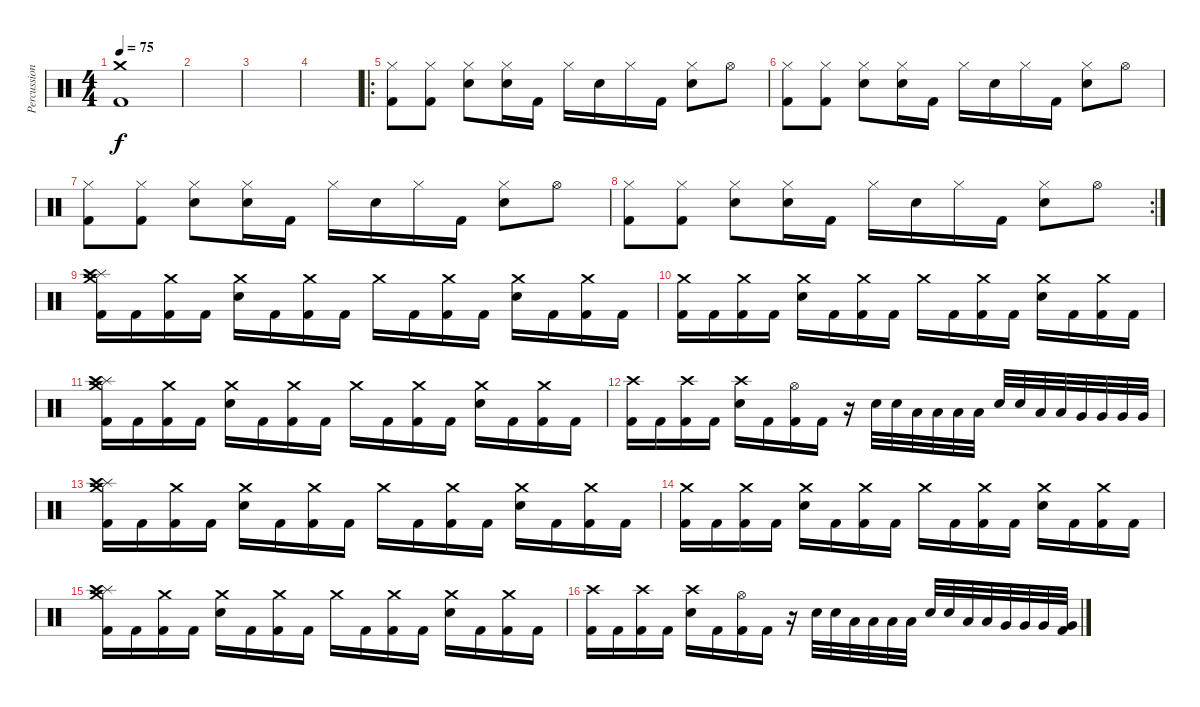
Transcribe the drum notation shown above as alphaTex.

\track ("Percussion" "Percussion") {instrument percussion}
\staff {score}
\articulation defaults
\ts (4 4)
\tempo 75
\clef neutral
\ks c
("Crash medium (hit)" "Kick (hit) 2").1{dy f} |
|
|
|
\ro
("Hi-Hat (closed)" "Kick (hit) 2").8{balance 0} ("Hi-Hat (closed)" "Kick (hit) 2").8 ("Hi-Hat (closed)" "Electric Snare (hit)").8 ("Hi-Hat (closed)" "Electric Snare (hit)").16 "Kick (hit) 2".16 "Hi-Hat (closed)".16 "Electric Snare (hit)".16 "Hi-Hat (closed)".16 "Kick (hit) 2".16 ("Hi-Hat (closed)" "Electric Snare (hit)").8 "Hi-Hat (open)".8 |
("Hi-Hat (closed)" "Kick (hit) 2").8 ("Hi-Hat (closed)" "Kick (hit) 2").8 ("Hi-Hat (closed)" "Electric Snare (hit)").8 ("Hi-Hat (closed)" "Electric Snare (hit)").16 "Kick (hit) 2".16 "Hi-Hat (closed)".16 "Electric Snare (hit)".16 "Hi-Hat (closed)".16 "Kick (hit) 2".16 ("Hi-Hat (closed)" "Electric Snare (hit)").8 "Hi-Hat (open)".8 |
("Hi-Hat (closed)" "Kick (hit) 2").8 ("Hi-Hat (closed)" "Kick (hit) 2").8 ("Hi-Hat (closed)" "Electric Snare (hit)").8 ("Hi-Hat (closed)" "Electric Snare (hit)").16 "Kick (hit) 2".16 "Hi-Hat (closed)".16 "Electric Snare (hit)".16 "Hi-Hat (closed)".16 "Kick (hit) 2".16 ("Hi-Hat (closed)" "Electric Snare (hit)").8 "Hi-Hat (open)".8 |
\rc 2
("Hi-Hat (closed)" "Kick (hit) 2").8 ("Hi-Hat (closed)" "Kick (hit) 2").8 ("Hi-Hat (closed)" "Electric Snare (hit)").8 ("Hi-Hat (closed)" "Electric Snare (hit)").16 "Kick (hit) 2".16 "Hi-Hat (closed)".16 "Electric Snare (hit)".16 "Hi-Hat (closed)".16 "Kick (hit) 2".16 ("Hi-Hat (closed)" "Electric Snare (hit)").8 "Hi-Hat (open)".8 |
("Splash (hit)" "Crash high (hit)" "Crash medium (hit)" "Kick (hit) 2").16 "Kick (hit) 2".16 ("Crash medium (hit)" "Kick (hit) 2").16 "Kick (hit) 2".16 ("Crash medium (hit)" "Snare (hit) 2").16 "Kick (hit) 2".16 ("Crash medium (hit)" "Kick (hit) 2").16 "Kick (hit) 2".16 "Crash medium (hit)".16 "Kick (hit) 2".16 ("Crash medium (hit)" "Kick (hit) 2").16 "Kick (hit) 2".16 ("Crash medium (hit)" "Snare (hit) 2").16 "Kick (hit) 2".16 ("Crash medium (hit)" "Kick (hit) 2").16 "Kick (hit) 2".16 |
("Crash medium (hit)" "Kick (hit) 2").16 "Kick (hit) 2".16 ("Crash medium (hit)" "Kick (hit) 2").16 "Kick (hit) 2".16 ("Crash medium (hit)" "Snare (hit) 2").16 "Kick (hit) 2".16 ("Crash medium (hit)" "Kick (hit) 2").16 "Kick (hit) 2".16 "Crash medium (hit)".16 "Kick (hit) 2".16 ("Crash medium (hit)" "Kick (hit) 2").16 "Kick (hit) 2".16 ("Crash medium (hit)" "Snare (hit) 2").16 "Kick (hit) 2".16 ("Crash medium (hit)" "Kick (hit) 2").16 "Kick (hit) 2".16 |
("Splash (hit)" "Crash high (hit)" "Crash medium (hit)" "Kick (hit) 2").16 "Kick (hit) 2".16 ("Crash medium (hit)" "Kick (hit) 2").16 "Kick (hit) 2".16 ("Crash medium (hit)" "Snare (hit) 2").16 "Kick (hit) 2".16 ("Crash medium (hit)" "Kick (hit) 2").16 "Kick (hit) 2".16 "Crash medium (hit)".16 "Kick (hit) 2".16 ("Crash medium (hit)" "Kick (hit) 2").16 "Kick (hit) 2".16 ("Crash medium (hit)" "Snare (hit) 2").16 "Kick (hit) 2".16 ("Crash medium (hit)" "Kick (hit) 2").16 "Kick (hit) 2".16 |
("Crash high (hit)" "Kick (hit) 2").16 "Kick (hit) 2".16 ("Crash high (hit)" "Kick (hit) 2").16 "Kick (hit) 2".16 ("Crash high (hit)" "Snare (hit) 2").16 "Kick (hit) 2".16 ("Hi-Hat (open)" "Kick (hit) 2").16 "Kick (hit) 2".16 r.16 "Snare (hit) 2".32 "Snare (hit) 2".32 "Low Tom (hit)".32 "Low Tom (hit)".32 "Low Tom (hit)".32 "Low Tom (hit)".32 "Snare (hit) 2".32 "Snare (hit) 2".32 "Low Tom (hit)".32 "Low Tom (hit)".32 "Very Low Tom (hit)".32 "Very Low Tom (hit)".32 "Very Low Tom (hit)".32 "Very Low Tom (hit)".32 |
("Splash (hit)" "Crash high (hit)" "Crash medium (hit)" "Kick (hit) 2").16 "Kick (hit) 2".16 ("Crash medium (hit)" "Kick (hit) 2").16 "Kick (hit) 2".16 ("Crash medium (hit)" "Snare (hit) 2").16 "Kick (hit) 2".16 ("Crash medium (hit)" "Kick (hit) 2").16 "Kick (hit) 2".16 "Crash medium (hit)".16 "Kick (hit) 2".16 ("Crash medium (hit)" "Kick (hit) 2").16 "Kick (hit) 2".16 ("Crash medium (hit)" "Snare (hit) 2").16 "Kick (hit) 2".16 ("Crash medium (hit)" "Kick (hit) 2").16 "Kick (hit) 2".16 |
("Crash medium (hit)" "Kick (hit) 2").16 "Kick (hit) 2".16 ("Crash medium (hit)" "Kick (hit) 2").16 "Kick (hit) 2".16 ("Crash medium (hit)" "Snare (hit) 2").16 "Kick (hit) 2".16 ("Crash medium (hit)" "Kick (hit) 2").16 "Kick (hit) 2".16 "Crash medium (hit)".16 "Kick (hit) 2".16 ("Crash medium (hit)" "Kick (hit) 2").16 "Kick (hit) 2".16 ("Crash medium (hit)" "Snare (hit) 2").16 "Kick (hit) 2".16 ("Crash medium (hit)" "Kick (hit) 2").16 "Kick (hit) 2".16 |
("Splash (hit)" "Crash high (hit)" "Crash medium (hit)" "Kick (hit) 2").16 "Kick (hit) 2".16 ("Crash medium (hit)" "Kick (hit) 2").16 "Kick (hit) 2".16 ("Crash medium (hit)" "Snare (hit) 2").16 "Kick (hit) 2".16 ("Crash medium (hit)" "Kick (hit) 2").16 "Kick (hit) 2".16 "Crash medium (hit)".16 "Kick (hit) 2".16 ("Crash medium (hit)" "Kick (hit) 2").16 "Kick (hit) 2".16 ("Crash medium (hit)" "Snare (hit) 2").16 "Kick (hit) 2".16 ("Crash medium (hit)" "Kick (hit) 2").16 "Kick (hit) 2".16 |
("Crash high (hit)" "Kick (hit) 2").16 "Kick (hit) 2".16 ("Crash high (hit)" "Kick (hit) 2").16 "Kick (hit) 2".16 ("Crash high (hit)" "Snare (hit) 2").16 "Kick (hit) 2".16 ("Hi-Hat (open)" "Kick (hit) 2").16 "Kick (hit) 2".16 r.16 "Snare (hit) 2".32 "Snare (hit) 2".32 "Low Tom (hit)".32 "Low Tom (hit)".32 "Low Tom (hit)".32 "Low Tom (hit)".32 "Snare (hit) 2".32 "Snare (hit) 2".32 "Low Tom (hit)".32 "Low Tom (hit)".32 "Very Low Tom (hit)".32 "Very Low Tom (hit)".32 "Very Low Tom (hit)".32 ("Very Low Tom (hit)" "Kick (hit) 2").32
